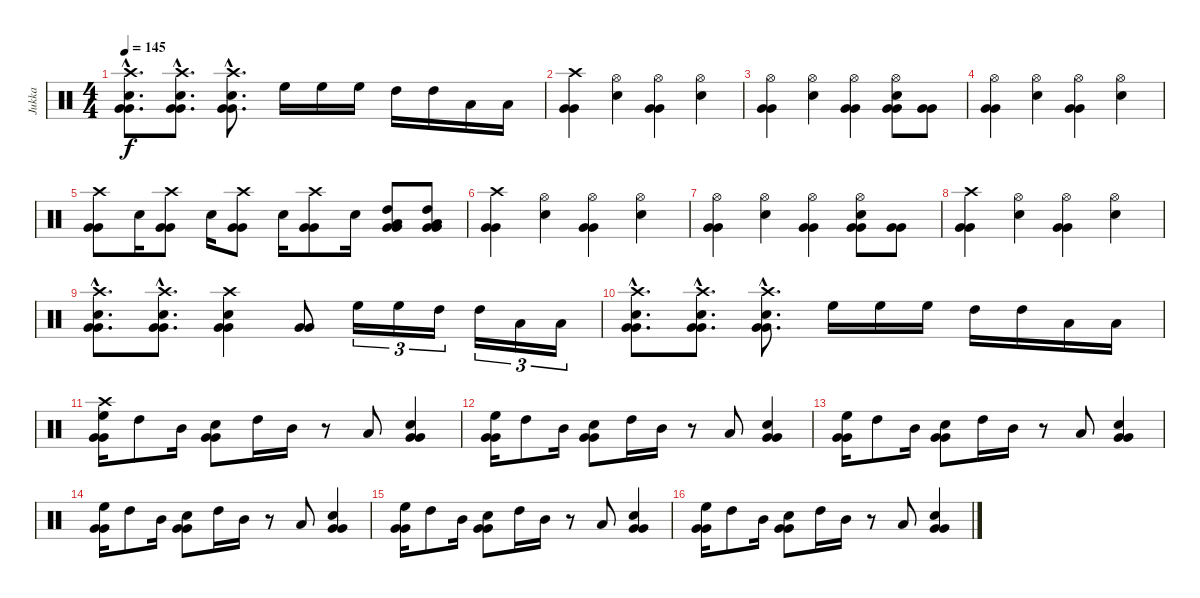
\track ("Jukka" "Jukka") {instrument percussion}
\staff {score}
\articulation defaults
\ts (4 4)
\tempo 145
\clef neutral
\ks c
("Crash high (hit)"{hac} "Electric Snare (hit)"{hac} "Very Low Tom (hit)"{hac} "Very Low Tom (hit)"{hac}).8{d dy f} ("Crash high (hit)"{hac} "Electric Snare (hit)"{hac} "Very Low Tom (hit)"{hac} "Very Low Tom (hit)"{hac}).8{d} ("Crash high (hit)"{hac} "Electric Snare (hit)"{hac} "Very Low Tom (hit)"{hac} "Very Low Tom (hit)"{hac}).8{d} "High Floor Tom (hit)".16 "High Floor Tom (hit)".16 "High Floor Tom (hit)".16 "High Tom (hit)".16 "High Tom (hit)".16 "Low Tom (hit)".16 "Low Tom (hit)".16 |
("Crash high (hit)" "Very Low Tom (hit)" "Very Low Tom (hit)").4 ("Hi-Hat (open)" "Electric Snare (hit)").4 ("Hi-Hat (open)" "Very Low Tom (hit)" "Very Low Tom (hit)").4 ("Hi-Hat (open)" "Electric Snare (hit)").4 |
("Hi-Hat (open)" "Very Low Tom (hit)" "Very Low Tom (hit)").4 ("Hi-Hat (open)" "Electric Snare (hit)").4 ("Hi-Hat (open)" "Very Low Tom (hit)" "Very Low Tom (hit)").4 ("Hi-Hat (open)" "Electric Snare (hit)" "Very Low Tom (hit)" "Very Low Tom (hit)").8 ("Very Low Tom (hit)" "Very Low Tom (hit)").8 |
("Hi-Hat (open)" "Very Low Tom (hit)" "Very Low Tom (hit)").4 ("Hi-Hat (open)" "Electric Snare (hit)").4 ("Hi-Hat (open)" "Very Low Tom (hit)" "Very Low Tom (hit)").4 ("Hi-Hat (open)" "Electric Snare (hit)").4 |
("Crash high (hit)" "Very Low Tom (hit)" "Very Low Tom (hit)").8 "Electric Snare (hit)".16 ("Crash high (hit)" "Very Low Tom (hit)" "Very Low Tom (hit)").8 "Electric Snare (hit)".16 ("Crash high (hit)" "Very Low Tom (hit)" "Very Low Tom (hit)").8 "Electric Snare (hit)".16 ("Crash high (hit)" "Very Low Tom (hit)" "Very Low Tom (hit)").8 "Electric Snare (hit)".16 ("High Tom (hit)" "Low Tom (hit)" "Very Low Tom (hit)" "Very Low Tom (hit)").8 ("High Tom (hit)" "Low Tom (hit)" "Very Low Tom (hit)" "Very Low Tom (hit)").8 |
("Crash high (hit)" "Very Low Tom (hit)" "Very Low Tom (hit)").4 ("Hi-Hat (open)" "Electric Snare (hit)").4 ("Hi-Hat (open)" "Very Low Tom (hit)" "Very Low Tom (hit)").4 ("Hi-Hat (open)" "Electric Snare (hit)").4 |
("Hi-Hat (open)" "Very Low Tom (hit)" "Very Low Tom (hit)").4 ("Hi-Hat (open)" "Electric Snare (hit)").4 ("Hi-Hat (open)" "Very Low Tom (hit)" "Very Low Tom (hit)").4 ("Hi-Hat (open)" "Electric Snare (hit)" "Very Low Tom (hit)" "Very Low Tom (hit)").8 ("Very Low Tom (hit)" "Very Low Tom (hit)").8 |
("Crash high (hit)" "Very Low Tom (hit)" "Very Low Tom (hit)").4 ("Hi-Hat (open)" "Electric Snare (hit)").4 ("Hi-Hat (open)" "Very Low Tom (hit)" "Very Low Tom (hit)").4 ("Hi-Hat (open)" "Electric Snare (hit)").4 |
("Crash high (hit)"{hac} "Electric Snare (hit)"{hac} "Very Low Tom (hit)"{hac} "Very Low Tom (hit)"{hac}).8{d} ("Crash high (hit)"{hac} "Electric Snare (hit)"{hac} "Very Low Tom (hit)"{hac} "Very Low Tom (hit)"{hac}).8{d} ("Crash high (hit)" "Electric Snare (hit)" "Very Low Tom (hit)" "Very Low Tom (hit)").4 ("Very Low Tom (hit)" "Very Low Tom (hit)").8 "High Floor Tom (hit)".16{tu (3 2)} "High Floor Tom (hit)".16{tu (3 2)} "High Tom (hit)".16{tu (3 2)} "High Tom (hit)".16{tu (3 2)} "Low Tom (hit)".16{tu (3 2)} "Low Tom (hit)".16{tu (3 2)} |
("Crash high (hit)"{hac} "Electric Snare (hit)"{hac} "Very Low Tom (hit)"{hac} "Very Low Tom (hit)"{hac}).8{d} ("Crash high (hit)"{hac} "Electric Snare (hit)"{hac} "Very Low Tom (hit)"{hac} "Very Low Tom (hit)"{hac}).8{d} ("Crash high (hit)"{hac} "Electric Snare (hit)"{hac} "Very Low Tom (hit)"{hac} "Very Low Tom (hit)"{hac}).8{d} "High Floor Tom (hit)".16 "High Floor Tom (hit)".16 "High Floor Tom (hit)".16 "High Tom (hit)".16 "High Tom (hit)".16 "Low Tom (hit)".16 "Low Tom (hit)".16 |
("Crash high (hit)" "High Floor Tom (hit)" "Very Low Tom (hit)" "Very Low Tom (hit)").16 "High Tom (hit)".8 "Mid Tom (hit)".16 ("Electric Snare (hit)" "Very Low Tom (hit)" "Very Low Tom (hit)").8 "High Tom (hit)".16 "Mid Tom (hit)".16 r.8 "Low Tom (hit)".8 ("Electric Snare (hit)" "Very Low Tom (hit)" "Very Low Tom (hit)").4 |
("High Floor Tom (hit)" "Very Low Tom (hit)" "Very Low Tom (hit)").16 "High Tom (hit)".8 "Mid Tom (hit)".16 ("Electric Snare (hit)" "Very Low Tom (hit)" "Very Low Tom (hit)").8 "High Tom (hit)".16 "Mid Tom (hit)".16 r.8 "Low Tom (hit)".8 ("Electric Snare (hit)" "Very Low Tom (hit)" "Very Low Tom (hit)").4 |
("High Floor Tom (hit)" "Very Low Tom (hit)" "Very Low Tom (hit)").16 "High Tom (hit)".8 "Mid Tom (hit)".16 ("Electric Snare (hit)" "Very Low Tom (hit)" "Very Low Tom (hit)").8 "High Tom (hit)".16 "Mid Tom (hit)".16 r.8 "Low Tom (hit)".8 ("Electric Snare (hit)" "Very Low Tom (hit)" "Very Low Tom (hit)").4 |
("High Floor Tom (hit)" "Very Low Tom (hit)" "Very Low Tom (hit)").16 "High Tom (hit)".8 "Mid Tom (hit)".16 ("Electric Snare (hit)" "Very Low Tom (hit)" "Very Low Tom (hit)").8 "High Tom (hit)".16 "Mid Tom (hit)".16 r.8 "Low Tom (hit)".8 ("Electric Snare (hit)" "Very Low Tom (hit)" "Very Low Tom (hit)").4 |
("High Floor Tom (hit)" "Very Low Tom (hit)" "Very Low Tom (hit)").16 "High Tom (hit)".8 "Mid Tom (hit)".16 ("Electric Snare (hit)" "Very Low Tom (hit)" "Very Low Tom (hit)").8 "High Tom (hit)".16 "Mid Tom (hit)".16 r.8 "Low Tom (hit)".8 ("Electric Snare (hit)" "Very Low Tom (hit)" "Very Low Tom (hit)").4 |
("High Floor Tom (hit)" "Very Low Tom (hit)" "Very Low Tom (hit)").16 "High Tom (hit)".8 "Mid Tom (hit)".16 ("Electric Snare (hit)" "Very Low Tom (hit)" "Very Low Tom (hit)").8 "High Tom (hit)".16 "Mid Tom (hit)".16 r.8 "Low Tom (hit)".8 ("Electric Snare (hit)" "Very Low Tom (hit)" "Very Low Tom (hit)").4
